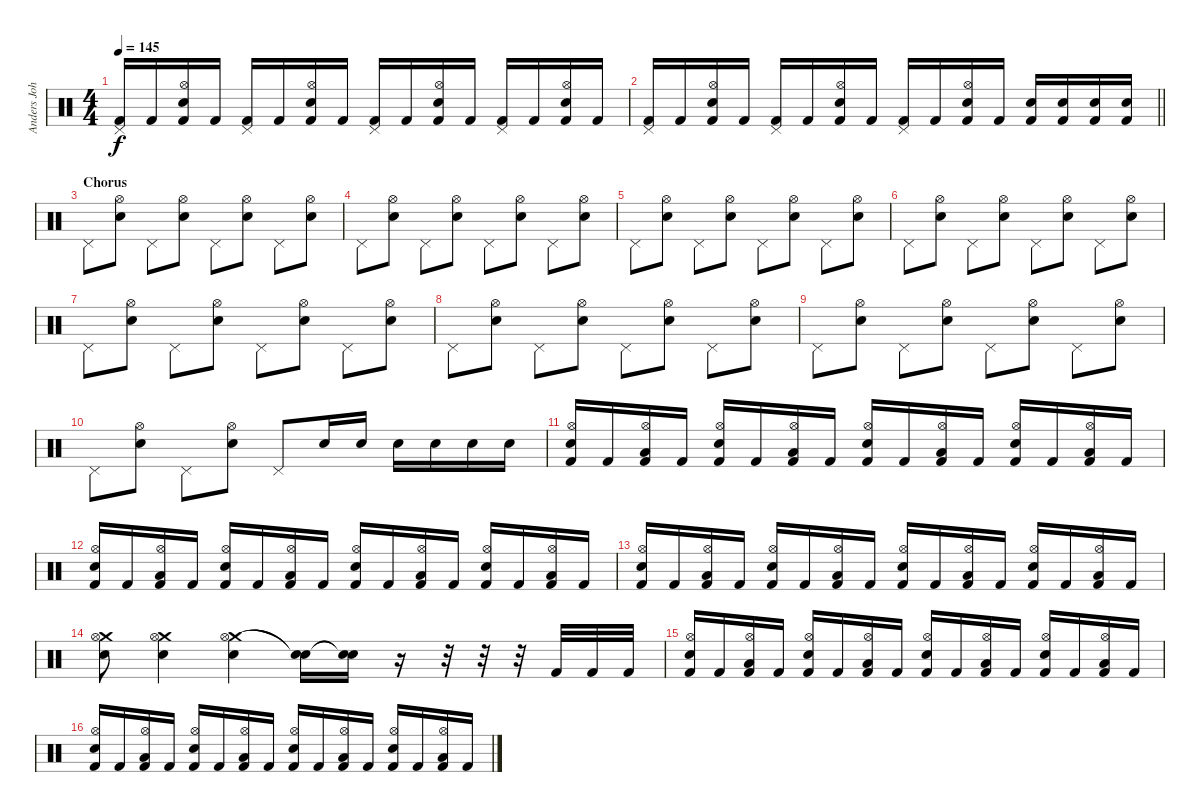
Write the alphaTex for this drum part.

\track ("Anders Johansson (Drums)" "Anders Joh") {instrument percussion}
\staff {score}
\articulation defaults
\ts (4 4)
\tempo 145
\clef neutral
\ks c
("Kick (hit) 2" "Pedal Hi-Hat (hit)").16{dy f} "Kick (hit) 2".16 ("Kick (hit) 2" "Hi-Hat (open)" "Electric Snare (hit)").16 "Kick (hit) 2".16 ("Kick (hit) 2" "Pedal Hi-Hat (hit)").16 "Kick (hit) 2".16 ("Kick (hit) 2" "Hi-Hat (open)" "Electric Snare (hit)").16 "Kick (hit) 2".16 ("Kick (hit) 2" "Pedal Hi-Hat (hit)").16 "Kick (hit) 2".16 ("Kick (hit) 2" "Hi-Hat (open)" "Electric Snare (hit)").16 "Kick (hit) 2".16 ("Kick (hit) 2" "Pedal Hi-Hat (hit)").16 "Kick (hit) 2".16 ("Kick (hit) 2" "Hi-Hat (open)" "Electric Snare (hit)").16 "Kick (hit) 2".16 |
\barLineRight lightlight
("Kick (hit) 2" "Pedal Hi-Hat (hit)").16 "Kick (hit) 2".16 ("Kick (hit) 2" "Hi-Hat (open)" "Electric Snare (hit)").16 "Kick (hit) 2".16 ("Kick (hit) 2" "Pedal Hi-Hat (hit)").16 "Kick (hit) 2".16 ("Kick (hit) 2" "Hi-Hat (open)" "Electric Snare (hit)").16 "Kick (hit) 2".16 ("Kick (hit) 2" "Pedal Hi-Hat (hit)").16 "Kick (hit) 2".16 ("Kick (hit) 2" "Hi-Hat (open)" "Electric Snare (hit)").16 "Kick (hit) 2".16 ("Kick (hit) 2" "Electric Snare (hit)").16 ("Kick (hit) 2" "Electric Snare (hit)").16 ("Kick (hit) 2" "Electric Snare (hit)").16 ("Kick (hit) 2" "Electric Snare (hit)").16 |
\section ("" "Chorus")
"Pedal Hi-Hat (hit)".8 ("Hi-Hat (open)" "Electric Snare (hit)").8 "Pedal Hi-Hat (hit)".8 ("Hi-Hat (open)" "Electric Snare (hit)").8 "Pedal Hi-Hat (hit)".8 ("Hi-Hat (open)" "Electric Snare (hit)").8 "Pedal Hi-Hat (hit)".8 ("Hi-Hat (open)" "Electric Snare (hit)").8 |
"Pedal Hi-Hat (hit)".8 ("Hi-Hat (open)" "Electric Snare (hit)").8 "Pedal Hi-Hat (hit)".8 ("Hi-Hat (open)" "Electric Snare (hit)").8 "Pedal Hi-Hat (hit)".8 ("Hi-Hat (open)" "Electric Snare (hit)").8 "Pedal Hi-Hat (hit)".8 ("Hi-Hat (open)" "Electric Snare (hit)").8 |
"Pedal Hi-Hat (hit)".8 ("Hi-Hat (open)" "Electric Snare (hit)").8 "Pedal Hi-Hat (hit)".8 ("Hi-Hat (open)" "Electric Snare (hit)").8 "Pedal Hi-Hat (hit)".8 ("Hi-Hat (open)" "Electric Snare (hit)").8 "Pedal Hi-Hat (hit)".8 ("Hi-Hat (open)" "Electric Snare (hit)").8 |
"Pedal Hi-Hat (hit)".8 ("Hi-Hat (open)" "Electric Snare (hit)").8 "Pedal Hi-Hat (hit)".8 ("Hi-Hat (open)" "Electric Snare (hit)").8 "Pedal Hi-Hat (hit)".8 ("Hi-Hat (open)" "Electric Snare (hit)").8 "Pedal Hi-Hat (hit)".8 ("Hi-Hat (open)" "Electric Snare (hit)").8 |
"Pedal Hi-Hat (hit)".8 ("Hi-Hat (open)" "Electric Snare (hit)").8 "Pedal Hi-Hat (hit)".8 ("Hi-Hat (open)" "Electric Snare (hit)").8 "Pedal Hi-Hat (hit)".8 ("Hi-Hat (open)" "Electric Snare (hit)").8 "Pedal Hi-Hat (hit)".8 ("Hi-Hat (open)" "Electric Snare (hit)").8 |
"Pedal Hi-Hat (hit)".8 ("Hi-Hat (open)" "Electric Snare (hit)").8 "Pedal Hi-Hat (hit)".8 ("Hi-Hat (open)" "Electric Snare (hit)").8 "Pedal Hi-Hat (hit)".8 ("Hi-Hat (open)" "Electric Snare (hit)").8 "Pedal Hi-Hat (hit)".8 ("Hi-Hat (open)" "Electric Snare (hit)").8 |
"Pedal Hi-Hat (hit)".8 ("Hi-Hat (open)" "Electric Snare (hit)").8 "Pedal Hi-Hat (hit)".8 ("Hi-Hat (open)" "Electric Snare (hit)").8 "Pedal Hi-Hat (hit)".8 ("Hi-Hat (open)" "Electric Snare (hit)").8 "Pedal Hi-Hat (hit)".8 ("Hi-Hat (open)" "Electric Snare (hit)").8 |
"Pedal Hi-Hat (hit)".8 ("Hi-Hat (open)" "Electric Snare (hit)").8 "Pedal Hi-Hat (hit)".8 ("Hi-Hat (open)" "Electric Snare (hit)").8 "Pedal Hi-Hat (hit)".8 "Electric Snare (hit)".16 "Electric Snare (hit)".16 "Electric Snare (hit)".16 "Electric Snare (hit)".16 "Electric Snare (hit)".16 "Electric Snare (hit)".16 |
("Kick (hit) 2" "Electric Snare (hit)" "Hi-Hat (open)").16 "Kick (hit) 2".16 ("Kick (hit) 2" "Low Tom (hit)" "Hi-Hat (open)").16 "Kick (hit) 2".16 ("Kick (hit) 2" "Electric Snare (hit)" "Hi-Hat (open)").16 "Kick (hit) 2".16 ("Kick (hit) 2" "Low Tom (hit)" "Hi-Hat (open)").16 "Kick (hit) 2".16 ("Kick (hit) 2" "Electric Snare (hit)" "Hi-Hat (open)").16 "Kick (hit) 2".16 ("Kick (hit) 2" "Low Tom (hit)" "Hi-Hat (open)").16 "Kick (hit) 2".16 ("Kick (hit) 2" "Electric Snare (hit)" "Hi-Hat (open)").16 "Kick (hit) 2".16 ("Kick (hit) 2" "Low Tom (hit)" "Hi-Hat (open)").16 "Kick (hit) 2".16 |
("Kick (hit) 2" "Electric Snare (hit)" "Hi-Hat (open)").16 "Kick (hit) 2".16 ("Kick (hit) 2" "Low Tom (hit)" "Hi-Hat (open)").16 "Kick (hit) 2".16 ("Kick (hit) 2" "Electric Snare (hit)" "Hi-Hat (open)").16 "Kick (hit) 2".16 ("Kick (hit) 2" "Low Tom (hit)" "Hi-Hat (open)").16 "Kick (hit) 2".16 ("Kick (hit) 2" "Electric Snare (hit)" "Hi-Hat (open)").16 "Kick (hit) 2".16 ("Kick (hit) 2" "Low Tom (hit)" "Hi-Hat (open)").16 "Kick (hit) 2".16 ("Kick (hit) 2" "Electric Snare (hit)" "Hi-Hat (open)").16 "Kick (hit) 2".16 ("Kick (hit) 2" "Low Tom (hit)" "Hi-Hat (open)").16 "Kick (hit) 2".16 |
("Kick (hit) 2" "Electric Snare (hit)" "Hi-Hat (open)").16 "Kick (hit) 2".16 ("Kick (hit) 2" "Low Tom (hit)" "Hi-Hat (open)").16 "Kick (hit) 2".16 ("Kick (hit) 2" "Electric Snare (hit)" "Hi-Hat (open)").16 "Kick (hit) 2".16 ("Kick (hit) 2" "Low Tom (hit)" "Hi-Hat (open)").16 "Kick (hit) 2".16 ("Kick (hit) 2" "Electric Snare (hit)" "Hi-Hat (open)").16 "Kick (hit) 2".16 ("Kick (hit) 2" "Low Tom (hit)" "Hi-Hat (open)").16 "Kick (hit) 2".16 ("Kick (hit) 2" "Electric Snare (hit)" "Hi-Hat (open)").16 "Kick (hit) 2".16 ("Kick (hit) 2" "Low Tom (hit)" "Hi-Hat (open)").16 "Kick (hit) 2".16 |
("Crash medium (hit)" "Hi-Hat (open)" "Snare (hit) 2").8 ("Crash medium (hit)" "Hi-Hat (open)" "Snare (hit) 2").4 ("Crash medium (hit)" "Hi-Hat (open)" "Snare (hit) 2").4 ("Snare (hit)"{t} "Snare (hit)"{t}).16 ("Snare (hit)"{t} "Snare (hit)"{t}).16 r.16 r.32 r.32 r.32 "Kick (hit) 2".32 "Kick (hit) 2".32 "Kick (hit) 2".32 |
("Kick (hit) 2" "Electric Snare (hit)" "Hi-Hat (open)").16 "Kick (hit) 2".16 ("Kick (hit) 2" "Low Tom (hit)" "Hi-Hat (open)").16 "Kick (hit) 2".16 ("Kick (hit) 2" "Electric Snare (hit)" "Hi-Hat (open)").16 "Kick (hit) 2".16 ("Kick (hit) 2" "Low Tom (hit)" "Hi-Hat (open)").16 "Kick (hit) 2".16 ("Kick (hit) 2" "Electric Snare (hit)" "Hi-Hat (open)").16 "Kick (hit) 2".16 ("Kick (hit) 2" "Low Tom (hit)" "Hi-Hat (open)").16 "Kick (hit) 2".16 ("Kick (hit) 2" "Electric Snare (hit)" "Hi-Hat (open)").16 "Kick (hit) 2".16 ("Kick (hit) 2" "Low Tom (hit)" "Hi-Hat (open)").16 "Kick (hit) 2".16 |
("Kick (hit) 2" "Electric Snare (hit)" "Hi-Hat (open)").16 "Kick (hit) 2".16 ("Kick (hit) 2" "Low Tom (hit)" "Hi-Hat (open)").16 "Kick (hit) 2".16 ("Kick (hit) 2" "Electric Snare (hit)" "Hi-Hat (open)").16 "Kick (hit) 2".16 ("Kick (hit) 2" "Low Tom (hit)" "Hi-Hat (open)").16 "Kick (hit) 2".16 ("Kick (hit) 2" "Electric Snare (hit)" "Hi-Hat (open)").16 "Kick (hit) 2".16 ("Kick (hit) 2" "Low Tom (hit)" "Hi-Hat (open)").16 "Kick (hit) 2".16 ("Kick (hit) 2" "Electric Snare (hit)" "Hi-Hat (open)").16 "Kick (hit) 2".16 ("Kick (hit) 2" "Low Tom (hit)" "Hi-Hat (open)").16 "Kick (hit) 2".16
